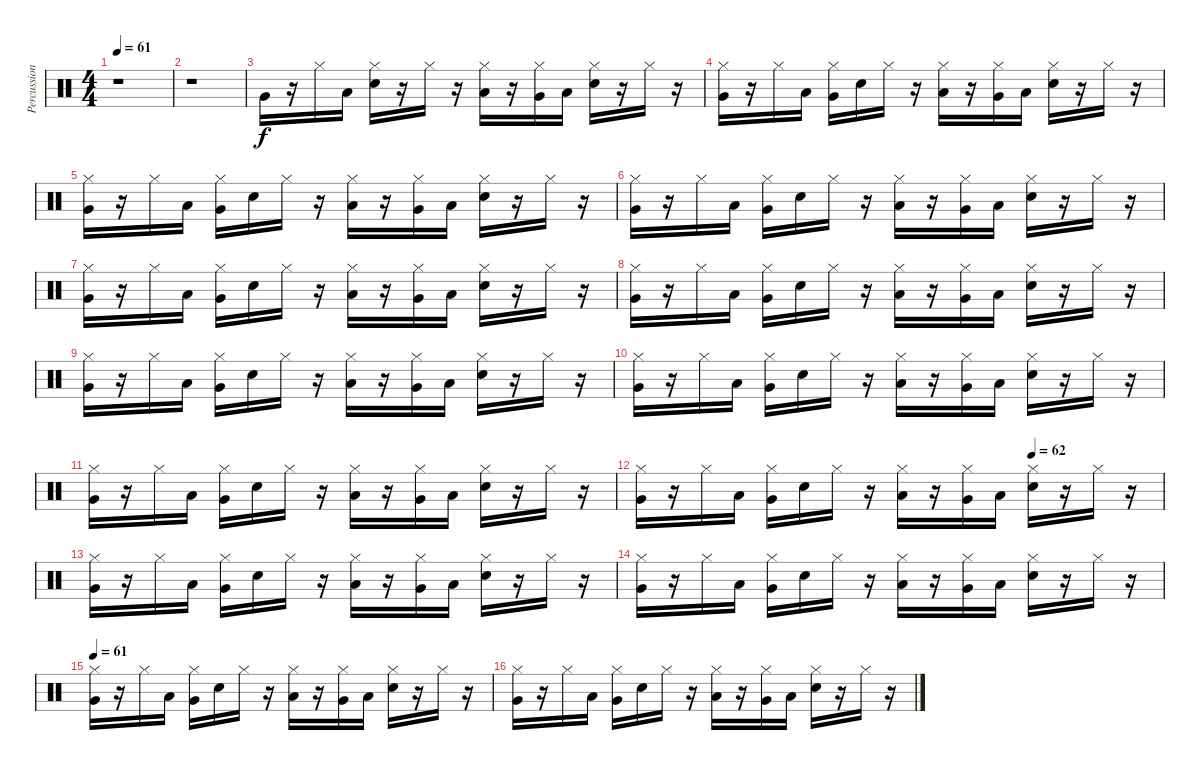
\track ("Percussion" "Percussion") {instrument percussion}
\staff {score}
\articulation defaults
\ts (4 4)
\tempo 61
\clef neutral
\ks c
r.1{dy f} |
r.1 |
"Very Low Tom (hit)".16 r.16 "Hi-Hat (closed)".16 "Low Floor Tom (hit)".16 ("Hi-Hat (closed)" "Electric Snare (hit)").16 r.16 "Hi-Hat (closed)".16 r.16 ("Hi-Hat (closed)" "Low Floor Tom (hit)").16 r.16 ("Hi-Hat (closed)" "Very Low Tom (hit)").16 "Low Floor Tom (hit)".16 ("Hi-Hat (closed)" "Electric Snare (hit)").16 r.16 "Hi-Hat (closed)".16 r.16 |
("Hi-Hat (closed)" "Very Low Tom (hit)").16 r.16 "Hi-Hat (closed)".16 "Low Floor Tom (hit)".16 ("Hi-Hat (closed)" "Very Low Tom (hit)").16 "Electric Snare (hit)".16 "Hi-Hat (closed)".16 r.16 ("Hi-Hat (closed)" "Low Floor Tom (hit)").16 r.16 ("Hi-Hat (closed)" "Very Low Tom (hit)").16 "Low Floor Tom (hit)".16 ("Hi-Hat (closed)" "Electric Snare (hit)").16 r.16 "Hi-Hat (closed)".16 r.16 |
("Hi-Hat (closed)" "Very Low Tom (hit)").16 r.16 "Hi-Hat (closed)".16 "Low Floor Tom (hit)".16 ("Hi-Hat (closed)" "Very Low Tom (hit)").16 "Electric Snare (hit)".16 "Hi-Hat (closed)".16 r.16 ("Hi-Hat (closed)" "Low Floor Tom (hit)").16 r.16 ("Hi-Hat (closed)" "Very Low Tom (hit)").16 "Low Floor Tom (hit)".16 ("Hi-Hat (closed)" "Electric Snare (hit)").16 r.16 "Hi-Hat (closed)".16 r.16 |
("Hi-Hat (closed)" "Very Low Tom (hit)").16 r.16 "Hi-Hat (closed)".16 "Low Floor Tom (hit)".16 ("Hi-Hat (closed)" "Very Low Tom (hit)").16 "Electric Snare (hit)".16 "Hi-Hat (closed)".16 r.16 ("Hi-Hat (closed)" "Low Floor Tom (hit)").16 r.16 ("Hi-Hat (closed)" "Very Low Tom (hit)").16 "Low Floor Tom (hit)".16 ("Hi-Hat (closed)" "Electric Snare (hit)").16 r.16 "Hi-Hat (closed)".16 r.16 |
("Hi-Hat (closed)" "Very Low Tom (hit)").16 r.16 "Hi-Hat (closed)".16 "Low Floor Tom (hit)".16 ("Hi-Hat (closed)" "Very Low Tom (hit)").16 "Electric Snare (hit)".16 "Hi-Hat (closed)".16 r.16 ("Hi-Hat (closed)" "Low Floor Tom (hit)").16 r.16 ("Hi-Hat (closed)" "Very Low Tom (hit)").16 "Low Floor Tom (hit)".16 ("Hi-Hat (closed)" "Electric Snare (hit)").16 r.16 "Hi-Hat (closed)".16 r.16 |
("Hi-Hat (closed)" "Very Low Tom (hit)").16 r.16 "Hi-Hat (closed)".16 "Low Floor Tom (hit)".16 ("Hi-Hat (closed)" "Very Low Tom (hit)").16 "Electric Snare (hit)".16 "Hi-Hat (closed)".16 r.16 ("Hi-Hat (closed)" "Low Floor Tom (hit)").16 r.16 ("Hi-Hat (closed)" "Very Low Tom (hit)").16 "Low Floor Tom (hit)".16 ("Hi-Hat (closed)" "Electric Snare (hit)").16 r.16 "Hi-Hat (closed)".16 r.16 |
("Hi-Hat (closed)" "Very Low Tom (hit)").16 r.16 "Hi-Hat (closed)".16 "Low Floor Tom (hit)".16 ("Hi-Hat (closed)" "Very Low Tom (hit)").16 "Electric Snare (hit)".16 "Hi-Hat (closed)".16 r.16 ("Hi-Hat (closed)" "Low Floor Tom (hit)").16 r.16 ("Hi-Hat (closed)" "Very Low Tom (hit)").16 "Low Floor Tom (hit)".16 ("Hi-Hat (closed)" "Electric Snare (hit)").16 r.16 "Hi-Hat (closed)".16 r.16 |
("Hi-Hat (closed)" "Very Low Tom (hit)").16 r.16 "Hi-Hat (closed)".16 "Low Floor Tom (hit)".16 ("Hi-Hat (closed)" "Very Low Tom (hit)").16 "Electric Snare (hit)".16 "Hi-Hat (closed)".16 r.16 ("Hi-Hat (closed)" "Low Floor Tom (hit)").16 r.16 ("Hi-Hat (closed)" "Very Low Tom (hit)").16 "Low Floor Tom (hit)".16 ("Hi-Hat (closed)" "Electric Snare (hit)").16 r.16 "Hi-Hat (closed)".16 r.16 |
("Hi-Hat (closed)" "Very Low Tom (hit)").16 r.16 "Hi-Hat (closed)".16 "Low Floor Tom (hit)".16 ("Hi-Hat (closed)" "Very Low Tom (hit)").16 "Electric Snare (hit)".16 "Hi-Hat (closed)".16 r.16 ("Hi-Hat (closed)" "Low Floor Tom (hit)").16 r.16 ("Hi-Hat (closed)" "Very Low Tom (hit)").16 "Low Floor Tom (hit)".16 ("Hi-Hat (closed)" "Electric Snare (hit)").16 r.16 "Hi-Hat (closed)".16 r.16 |
\tempo (62 0.75)
("Hi-Hat (closed)" "Very Low Tom (hit)").16 r.16 "Hi-Hat (closed)".16 "Low Floor Tom (hit)".16 ("Hi-Hat (closed)" "Very Low Tom (hit)").16 "Electric Snare (hit)".16 "Hi-Hat (closed)".16 r.16 ("Hi-Hat (closed)" "Low Floor Tom (hit)").16 r.16 ("Hi-Hat (closed)" "Very Low Tom (hit)").16 "Low Floor Tom (hit)".16 ("Hi-Hat (closed)" "Electric Snare (hit)").16 r.16 "Hi-Hat (closed)".16 r.16 |
("Hi-Hat (closed)" "Very Low Tom (hit)").16 r.16 "Hi-Hat (closed)".16 "Low Floor Tom (hit)".16 ("Hi-Hat (closed)" "Very Low Tom (hit)").16 "Electric Snare (hit)".16 "Hi-Hat (closed)".16 r.16 ("Hi-Hat (closed)" "Low Floor Tom (hit)").16 r.16 ("Hi-Hat (closed)" "Very Low Tom (hit)").16 "Low Floor Tom (hit)".16 ("Hi-Hat (closed)" "Electric Snare (hit)").16 r.16 "Hi-Hat (closed)".16 r.16 |
("Hi-Hat (closed)" "Very Low Tom (hit)").16 r.16 "Hi-Hat (closed)".16 "Low Floor Tom (hit)".16 ("Hi-Hat (closed)" "Very Low Tom (hit)").16 "Electric Snare (hit)".16 "Hi-Hat (closed)".16 r.16 ("Hi-Hat (closed)" "Low Floor Tom (hit)").16 r.16 ("Hi-Hat (closed)" "Very Low Tom (hit)").16 "Low Floor Tom (hit)".16 ("Hi-Hat (closed)" "Electric Snare (hit)").16 r.16 "Hi-Hat (closed)".16 r.16 |
\tempo 61
("Hi-Hat (closed)" "Very Low Tom (hit)").16 r.16 "Hi-Hat (closed)".16 "Low Floor Tom (hit)".16 ("Hi-Hat (closed)" "Very Low Tom (hit)").16 "Electric Snare (hit)".16 "Hi-Hat (closed)".16 r.16 ("Hi-Hat (closed)" "Low Floor Tom (hit)").16 r.16 ("Hi-Hat (closed)" "Very Low Tom (hit)").16 "Low Floor Tom (hit)".16 ("Hi-Hat (closed)" "Electric Snare (hit)").16 r.16 "Hi-Hat (closed)".16 r.16 |
("Hi-Hat (closed)" "Very Low Tom (hit)").16 r.16 "Hi-Hat (closed)".16 "Low Floor Tom (hit)".16 ("Hi-Hat (closed)" "Very Low Tom (hit)").16 "Electric Snare (hit)".16 "Hi-Hat (closed)".16 r.16 ("Hi-Hat (closed)" "Low Floor Tom (hit)").16 r.16 ("Hi-Hat (closed)" "Very Low Tom (hit)").16 "Low Floor Tom (hit)".16 ("Hi-Hat (closed)" "Electric Snare (hit)").16 r.16 "Hi-Hat (closed)".16 r.16
